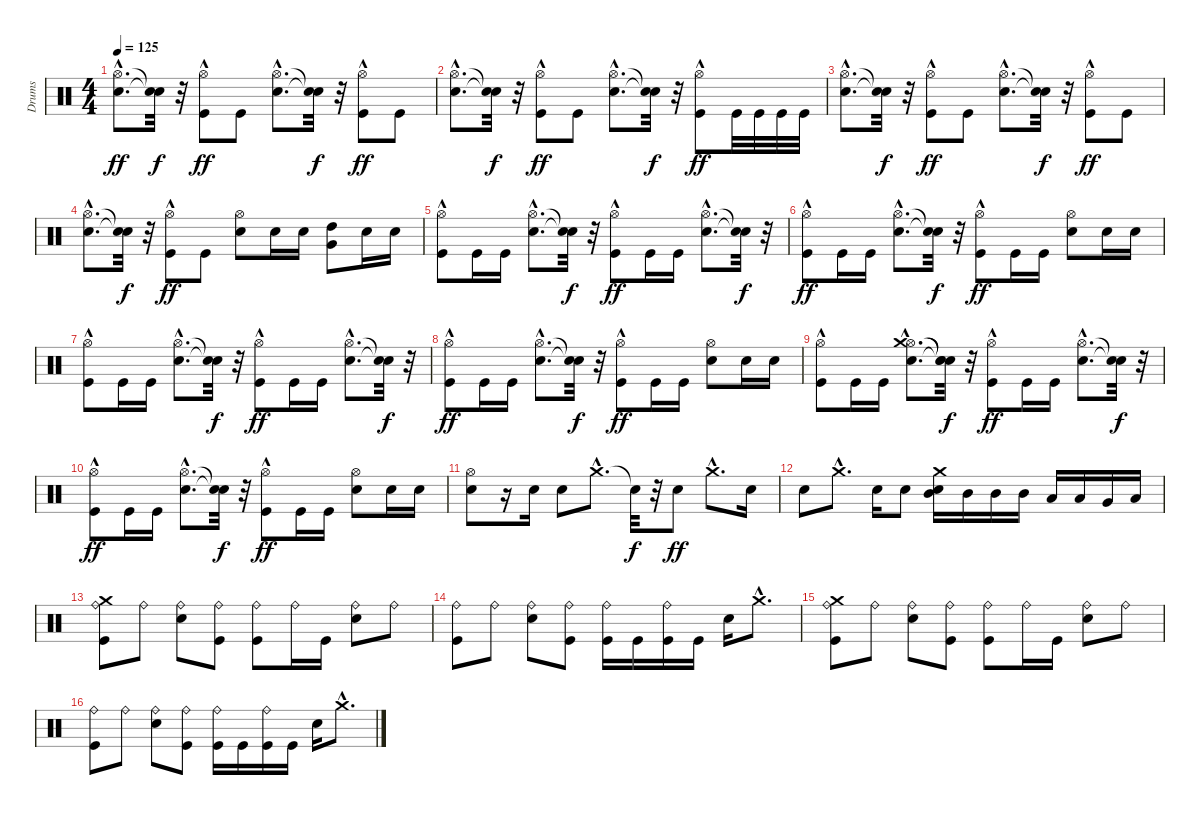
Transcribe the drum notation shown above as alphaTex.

\track ("Drums" "Drums") {instrument percussion}
\staff {score}
\articulation defaults
\ts (4 4)
\tempo 125
\clef neutral
\ks c
("Electric Snare (hit)"{hac} "Hi-Hat (open)"{hac}).8{d dy ff} ("Snare (hit)"{t} "Snare (hit)"{t}).32{dy f} r.32 ("Kick (hit)" "Hi-Hat (open)"{hac}).8{dy ff} "Kick (hit)".8 ("Electric Snare (hit)"{hac} "Hi-Hat (open)"{hac}).8{d} ("Snare (hit)"{t} "Snare (hit)"{t}).32{dy f} r.32 ("Kick (hit)" "Hi-Hat (open)"{hac}).8{dy ff} "Kick (hit)".8 |
("Electric Snare (hit)"{hac} "Hi-Hat (open)"{hac}).8{d} ("Snare (hit)"{t} "Snare (hit)"{t}).32{dy f} r.32 ("Kick (hit)" "Hi-Hat (open)"{hac}).8{dy ff} "Kick (hit)".8 ("Electric Snare (hit)"{hac} "Hi-Hat (open)"{hac}).8{d} ("Snare (hit)"{t} "Snare (hit)"{t}).32{dy f} r.32 ("Kick (hit)" "Hi-Hat (open)"{hac}).8{dy ff} "Kick (hit)".32 "Kick (hit)".32 "Kick (hit)".32 "Kick (hit)".32 |
("Electric Snare (hit)"{hac} "Hi-Hat (open)"{hac}).8{d} ("Snare (hit)"{t} "Snare (hit)"{t}).32{dy f} r.32 ("Kick (hit)" "Hi-Hat (open)"{hac}).8{dy ff} "Kick (hit)".8 ("Electric Snare (hit)"{hac} "Hi-Hat (open)"{hac}).8{d} ("Snare (hit)"{t} "Snare (hit)"{t}).32{dy f} r.32 ("Kick (hit)" "Hi-Hat (open)"{hac}).8{dy ff} "Kick (hit)".8 |
("Electric Snare (hit)"{hac} "Hi-Hat (open)"{hac}).8{d} ("Snare (hit)"{t} "Snare (hit)"{t}).32{dy f} r.32 ("Kick (hit)" "Hi-Hat (open)"{hac}).8{dy ff} "Kick (hit)".8 ("Electric Snare (hit)" "Hi-Hat (open)").8 "Electric Snare (hit)".16 "Electric Snare (hit)".16 ("Very Low Tom (hit)" "High Tom (hit)").8 "Electric Snare (hit)".16 "Electric Snare (hit)".16 |
("Kick (hit)" "Hi-Hat (open)"{hac}).8 "Kick (hit)".16 "Kick (hit)".16 ("Electric Snare (hit)"{hac} "Hi-Hat (open)"{hac}).8{d} ("Snare (hit)"{t} "Snare (hit)"{t}).32{dy f} r.32 ("Kick (hit)" "Hi-Hat (open)"{hac}).8{dy ff} "Kick (hit)".16 "Kick (hit)".16 ("Electric Snare (hit)"{hac} "Hi-Hat (open)"{hac}).8{d} ("Snare (hit)"{t} "Snare (hit)"{t}).32{dy f} r.32 |
("Kick (hit)" "Hi-Hat (open)"{hac}).8{dy ff} "Kick (hit)".16 "Kick (hit)".16 ("Electric Snare (hit)"{hac} "Hi-Hat (open)"{hac}).8{d} ("Snare (hit)"{t} "Snare (hit)"{t}).32{dy f} r.32 ("Kick (hit)" "Hi-Hat (open)"{hac}).8{dy ff} "Kick (hit)".16 "Kick (hit)".16 ("Electric Snare (hit)" "Hi-Hat (open)").8 "Electric Snare (hit)".16 "Electric Snare (hit)".16 |
("Kick (hit)" "Hi-Hat (open)"{hac}).8 "Kick (hit)".16 "Kick (hit)".16 ("Electric Snare (hit)"{hac} "Hi-Hat (open)"{hac}).8{d} ("Snare (hit)"{t} "Snare (hit)"{t}).32{dy f} r.32 ("Kick (hit)" "Hi-Hat (open)"{hac}).8{dy ff} "Kick (hit)".16 "Kick (hit)".16 ("Electric Snare (hit)"{hac} "Hi-Hat (open)"{hac}).8{d} ("Snare (hit)"{t} "Snare (hit)"{t}).32{dy f} r.32 |
("Kick (hit)" "Hi-Hat (open)"{hac}).8{dy ff} "Kick (hit)".16 "Kick (hit)".16 ("Electric Snare (hit)"{hac} "Hi-Hat (open)"{hac}).8{d} ("Snare (hit)"{t} "Snare (hit)"{t}).32{dy f} r.32 ("Kick (hit)" "Hi-Hat (open)"{hac}).8{dy ff} "Kick (hit)".16 "Kick (hit)".16 ("Electric Snare (hit)" "Hi-Hat (open)").8 "Electric Snare (hit)".16 "Electric Snare (hit)".16 |
("Kick (hit)" "Hi-Hat (open)"{hac}).8 "Kick (hit)".16 "Kick (hit)".16 ("Electric Snare (hit)"{hac} "Hi-Hat (open)"{hac} "Crash medium (hit)"{hac}).8{d} ("Snare (hit)"{t} "Snare (hit)"{t} "Snare (hit)"{t}).32{dy f} r.32 ("Kick (hit)" "Hi-Hat (open)"{hac}).8{dy ff} "Kick (hit)".16 "Kick (hit)".16 ("Electric Snare (hit)"{hac} "Hi-Hat (open)"{hac}).8{d} ("Snare (hit)"{t} "Snare (hit)"{t}).32{dy f} r.32 |
("Kick (hit)" "Hi-Hat (open)"{hac}).8{dy ff} "Kick (hit)".16 "Kick (hit)".16 ("Electric Snare (hit)"{hac} "Hi-Hat (open)"{hac}).8{d} ("Snare (hit)"{t} "Snare (hit)"{t}).32{dy f} r.32 ("Kick (hit)" "Hi-Hat (open)"{hac}).8{dy ff} "Kick (hit)".16 "Kick (hit)".16 ("Electric Snare (hit)" "Hi-Hat (open)").8 "Electric Snare (hit)".16 "Electric Snare (hit)".16 |
("Electric Snare (hit)" "Hi-Hat (open)").8 r.16 "Electric Snare (hit)".16 "Electric Snare (hit)".8 "Crash medium (hit)"{hac}.8{d} "Snare (hit)"{t}.32{dy f} r.32 "Electric Snare (hit)".8{dy ff} "Crash medium (hit)"{hac}.8{d} "Electric Snare (hit)".16 |
"Electric Snare (hit)".8 "Crash medium (hit)"{hac}.8{d} "Electric Snare (hit)".16 "Electric Snare (hit)".8 ("Electric Snare (hit)" "Mid Tom (hit)" "Crash medium (hit)").16 "Mid Tom (hit)".16 "Mid Tom (hit)".16 "Mid Tom (hit)".16 "Low Tom (hit)".16 "Low Tom (hit)".16 "Very Low Tom (hit)".16 "Low Floor Tom (hit)".16 |
("Kick (hit)" "Ride (bell)" "Crash medium (hit)").8 "Ride (bell)".8 ("Electric Snare (hit)" "Ride (bell)").8 ("Kick (hit)" "Ride (bell)").8 ("Kick (hit)" "Ride (bell)").8 "Ride (bell)".16 "Kick (hit)".16 ("Electric Snare (hit)" "Ride (bell)").8 "Ride (bell)".8 |
("Kick (hit)" "Ride (bell)").8 "Ride (bell)".8 ("Electric Snare (hit)" "Ride (bell)").8 ("Kick (hit)" "Ride (bell)").8 ("Kick (hit)" "Ride (bell)").16 "Kick (hit)".16 ("Kick (hit)" "Ride (bell)").16 "Kick (hit)".16 "Electric Snare (hit)".16 "Crash medium (hit)"{hac}.8{d} |
("Kick (hit)" "Ride (bell)" "Crash medium (hit)").8 "Ride (bell)".8 ("Electric Snare (hit)" "Ride (bell)").8 ("Kick (hit)" "Ride (bell)").8 ("Kick (hit)" "Ride (bell)").8 "Ride (bell)".16 "Kick (hit)".16 ("Electric Snare (hit)" "Ride (bell)").8 "Ride (bell)".8 |
("Kick (hit)" "Ride (bell)").8 "Ride (bell)".8 ("Electric Snare (hit)" "Ride (bell)").8 ("Kick (hit)" "Ride (bell)").8 ("Kick (hit)" "Ride (bell)").16 "Kick (hit)".16 ("Kick (hit)" "Ride (bell)").16 "Kick (hit)".16 "Electric Snare (hit)".16 "Crash medium (hit)"{hac}.8{d}
